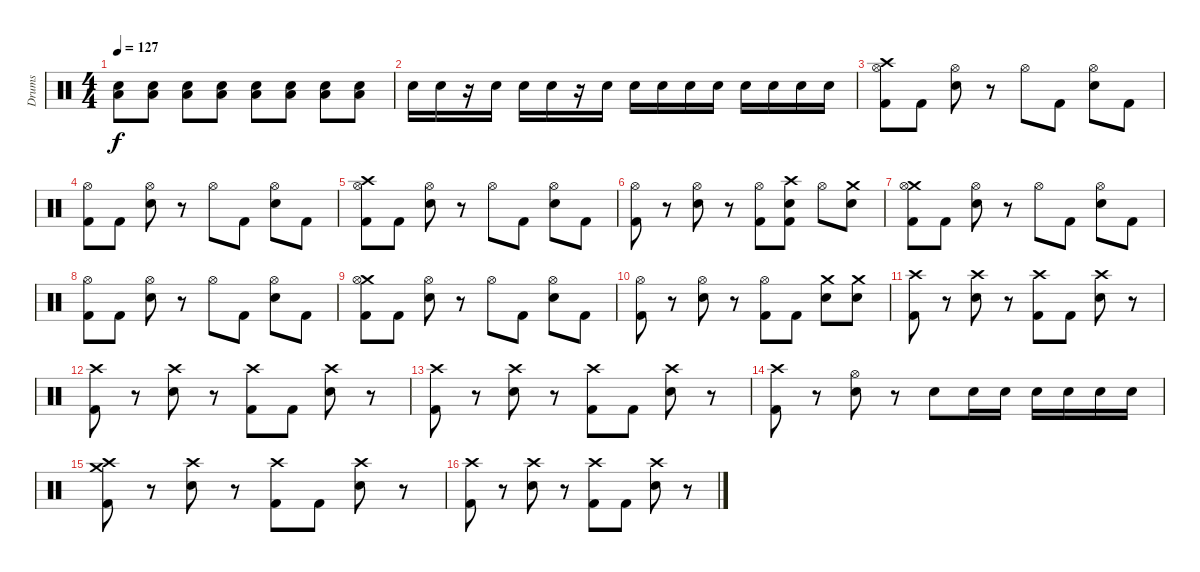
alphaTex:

\track ("Drums" "Drums") {instrument percussion}
\staff {score}
\articulation defaults
\ts (4 4)
\tempo 127
\clef neutral
\ks c
("Low Floor Tom (hit)" "Electric Snare (hit)").8{dy f} ("Low Floor Tom (hit)" "Electric Snare (hit)").8 ("Low Floor Tom (hit)" "Electric Snare (hit)").8 ("Low Floor Tom (hit)" "Electric Snare (hit)").8 ("Low Floor Tom (hit)" "Electric Snare (hit)").8 ("Low Floor Tom (hit)" "Electric Snare (hit)").8 ("Low Floor Tom (hit)" "Electric Snare (hit)").8 ("Low Floor Tom (hit)" "Electric Snare (hit)").8 |
"Electric Snare (hit)".16 "Electric Snare (hit)".16 r.16 "Electric Snare (hit)".16 "Electric Snare (hit)".16 "Electric Snare (hit)".16 r.16 "Electric Snare (hit)".16 "Electric Snare (hit)".16 "Electric Snare (hit)".16 "Electric Snare (hit)".16 "Electric Snare (hit)".16 "Electric Snare (hit)".16 "Electric Snare (hit)".16 "Electric Snare (hit)".16 "Electric Snare (hit)".16 |
("Crash high (hit)" "Hi-Hat (open)" "Kick (hit) 2").8 "Kick (hit) 2".8 ("Hi-Hat (open)" "Electric Snare (hit)").8 r.8 "Hi-Hat (open)".8 "Kick (hit) 2".8 ("Hi-Hat (open)" "Electric Snare (hit)").8 "Kick (hit) 2".8 |
("Hi-Hat (open)" "Kick (hit) 2").8 "Kick (hit) 2".8 ("Hi-Hat (open)" "Electric Snare (hit)").8 r.8 "Hi-Hat (open)".8 "Kick (hit) 2".8 ("Hi-Hat (open)" "Electric Snare (hit)").8 "Kick (hit) 2".8 |
("Crash high (hit)" "Hi-Hat (open)" "Kick (hit) 2").8 "Kick (hit) 2".8 ("Hi-Hat (open)" "Electric Snare (hit)").8 r.8 "Hi-Hat (open)".8 "Kick (hit) 2".8 ("Hi-Hat (open)" "Electric Snare (hit)").8 "Kick (hit) 2".8 |
("Hi-Hat (open)" "Kick (hit) 2").8 r.8 ("Hi-Hat (open)" "Electric Snare (hit)").8 r.8 ("Hi-Hat (open)" "Kick (hit) 2").8 ("Crash high (hit)" "Electric Snare (hit)" "Kick (hit) 2").8 "Hi-Hat (open)".8 ("Crash medium (hit)" "Electric Snare (hit)").8 |
("Crash medium (hit)" "Hi-Hat (open)" "Kick (hit) 2").8 "Kick (hit) 2".8 ("Hi-Hat (open)" "Electric Snare (hit)").8 r.8 "Hi-Hat (open)".8 "Kick (hit) 2".8 ("Hi-Hat (open)" "Electric Snare (hit)").8 "Kick (hit) 2".8 |
("Hi-Hat (open)" "Kick (hit) 2").8 "Kick (hit) 2".8 ("Hi-Hat (open)" "Electric Snare (hit)").8 r.8 "Hi-Hat (open)".8 "Kick (hit) 2".8 ("Hi-Hat (open)" "Electric Snare (hit)").8 "Kick (hit) 2".8 |
("Crash medium (hit)" "Hi-Hat (open)" "Kick (hit) 2").8 "Kick (hit) 2".8 ("Hi-Hat (open)" "Electric Snare (hit)").8 r.8 "Hi-Hat (open)".8 "Kick (hit) 2".8 ("Hi-Hat (open)" "Electric Snare (hit)").8 "Kick (hit) 2".8 |
("Hi-Hat (open)" "Kick (hit) 2").8 r.8 ("Hi-Hat (open)" "Electric Snare (hit)").8 r.8 ("Hi-Hat (open)" "Kick (hit) 2").8 "Kick (hit) 2".8 ("Crash medium (hit)" "Electric Snare (hit)").8 ("Crash medium (hit)" "Electric Snare (hit)").8 |
("Crash high (hit)" "Kick (hit) 2").8 r.8 ("Crash high (hit)" "Electric Snare (hit)").8 r.8 ("Crash high (hit)" "Kick (hit) 2").8 "Kick (hit) 2".8 ("Crash high (hit)" "Electric Snare (hit)").8 r.8 |
("Crash high (hit)" "Kick (hit) 2").8 r.8 ("Crash high (hit)" "Electric Snare (hit)").8 r.8 ("Crash high (hit)" "Kick (hit) 2").8 "Kick (hit) 2".8 ("Crash high (hit)" "Electric Snare (hit)").8 r.8 |
("Crash high (hit)" "Kick (hit) 2").8 r.8 ("Crash high (hit)" "Electric Snare (hit)").8 r.8 ("Crash high (hit)" "Kick (hit) 2").8 "Kick (hit) 2".8 ("Crash high (hit)" "Electric Snare (hit)").8 r.8 |
("Crash high (hit)" "Kick (hit) 2").8 r.8 ("Hi-Hat (open)" "Electric Snare (hit)").8 r.8 "Electric Snare (hit)".8 "Electric Snare (hit)".16 "Electric Snare (hit)".16 "Electric Snare (hit)".16 "Electric Snare (hit)".16 "Electric Snare (hit)".16 "Electric Snare (hit)".16 |
("Crash medium (hit)" "Crash high (hit)" "Kick (hit) 2").8 r.8 ("Crash high (hit)" "Electric Snare (hit)").8 r.8 ("Crash high (hit)" "Kick (hit) 2").8 "Kick (hit) 2".8 ("Crash high (hit)" "Electric Snare (hit)").8 r.8 |
("Crash high (hit)" "Kick (hit) 2").8 r.8 ("Crash high (hit)" "Electric Snare (hit)").8 r.8 ("Crash high (hit)" "Kick (hit) 2").8 "Kick (hit) 2".8 ("Crash high (hit)" "Electric Snare (hit)").8 r.8
